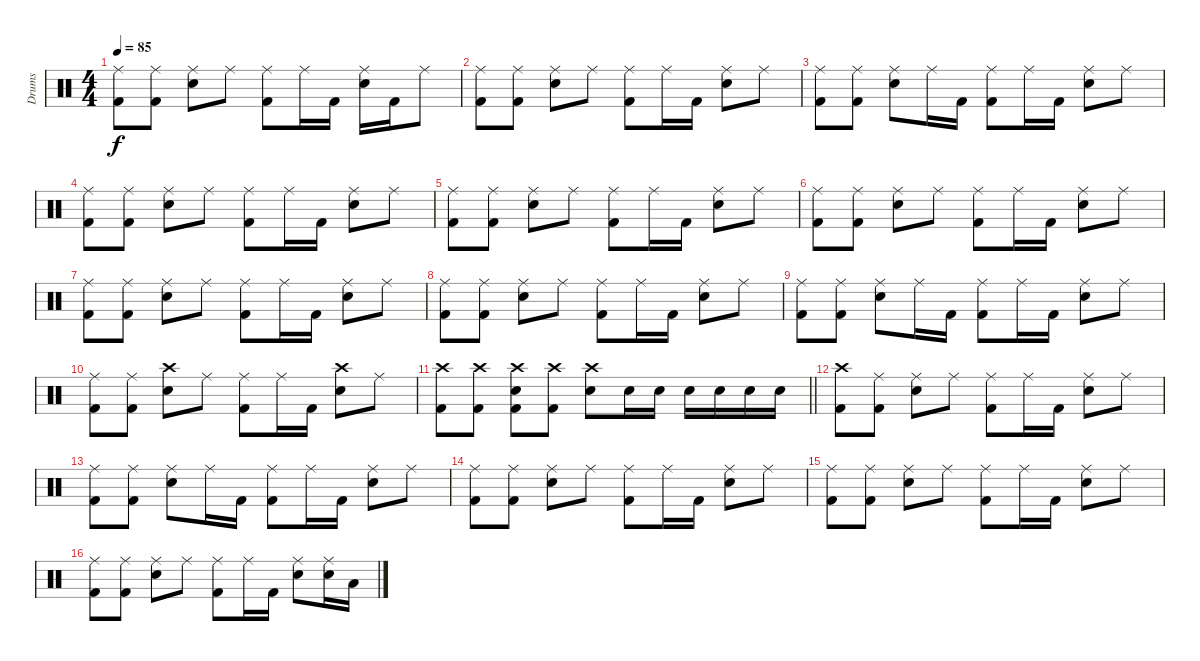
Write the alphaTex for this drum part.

\track ("Drums" "Drums") {instrument percussion}
\staff {score}
\articulation defaults
\ts (4 4)
\tempo 85
\clef neutral
\ks c
("Ride (middle)" "Kick (hit) 2").8{dy f} ("Ride (middle)" "Kick (hit) 2").8 ("Ride (middle)" "Snare (hit) 2").8 "Ride (middle)".8 ("Ride (middle)" "Kick (hit) 2").8 "Ride (middle)".16 "Kick (hit) 2".16 ("Ride (middle)" "Snare (hit) 2").16 "Kick (hit) 2".16 "Ride (middle)".8 |
("Ride (middle)" "Kick (hit) 2").8 ("Ride (middle)" "Kick (hit) 2").8 ("Ride (middle)" "Snare (hit) 2").8 "Ride (middle)".8 ("Ride (middle)" "Kick (hit) 2").8 "Ride (middle)".16 "Kick (hit) 2".16 ("Ride (middle)" "Snare (hit) 2").8 "Ride (middle)".8 |
("Ride (middle)" "Kick (hit) 2").8 ("Ride (middle)" "Kick (hit) 2").8 ("Ride (middle)" "Snare (hit) 2").8 "Ride (middle)".16 "Kick (hit) 2".16 ("Ride (middle)" "Kick (hit) 2").8 "Ride (middle)".16 "Kick (hit) 2".16 ("Ride (middle)" "Snare (hit) 2").8 "Ride (middle)".8 |
("Ride (middle)" "Kick (hit) 2").8 ("Ride (middle)" "Kick (hit) 2").8 ("Ride (middle)" "Snare (hit) 2").8 "Ride (middle)".8 ("Ride (middle)" "Kick (hit) 2").8 "Ride (middle)".16 "Kick (hit) 2".16 ("Ride (middle)" "Snare (hit) 2").8 "Ride (middle)".8 |
("Ride (middle)" "Kick (hit) 2").8 ("Ride (middle)" "Kick (hit) 2").8 ("Ride (middle)" "Snare (hit) 2").8 "Ride (middle)".8 ("Ride (middle)" "Kick (hit) 2").8 "Ride (middle)".16 "Kick (hit) 2".16 ("Ride (middle)" "Snare (hit) 2").8 "Ride (middle)".8 |
("Ride (middle)" "Kick (hit) 2").8 ("Ride (middle)" "Kick (hit) 2").8 ("Ride (middle)" "Snare (hit) 2").8 "Ride (middle)".8 ("Ride (middle)" "Kick (hit) 2").8 "Ride (middle)".16 "Kick (hit) 2".16 ("Ride (middle)" "Snare (hit) 2").8 "Ride (middle)".8 |
("Ride (middle)" "Kick (hit) 2").8 ("Ride (middle)" "Kick (hit) 2").8 ("Ride (middle)" "Snare (hit) 2").8 "Ride (middle)".8 ("Ride (middle)" "Kick (hit) 2").8 "Ride (middle)".16 "Kick (hit) 2".16 ("Ride (middle)" "Snare (hit) 2").8 "Ride (middle)".8 |
("Ride (middle)" "Kick (hit) 2").8 ("Ride (middle)" "Kick (hit) 2").8 ("Ride (middle)" "Snare (hit) 2").8 "Ride (middle)".8 ("Ride (middle)" "Kick (hit) 2").8 "Ride (middle)".16 "Kick (hit) 2".16 ("Ride (middle)" "Snare (hit) 2").8 "Ride (middle)".8 |
("Ride (middle)" "Kick (hit) 2").8 ("Ride (middle)" "Kick (hit) 2").8 ("Ride (middle)" "Snare (hit) 2").8 "Ride (middle)".16 "Kick (hit) 2".16 ("Ride (middle)" "Kick (hit) 2").8 "Ride (middle)".16 "Kick (hit) 2".16 ("Ride (middle)" "Snare (hit) 2").8 "Ride (middle)".8 |
("Ride (middle)" "Kick (hit) 2").8 ("Ride (middle)" "Kick (hit) 2").8 ("Crash high (hit)" "Snare (hit) 2").8 "Ride (middle)".8 ("Ride (middle)" "Kick (hit) 2").8 "Ride (middle)".16 "Kick (hit) 2".16 ("Crash high (hit)" "Snare (hit) 2").8 "Ride (middle)".8 |
\barLineRight lightlight
("Crash high (hit)" "Kick (hit) 2").8 ("Crash high (hit)" "Kick (hit) 2").8 ("Crash high (hit)" "Snare (hit) 2" "Kick (hit) 2").8 ("Crash high (hit)" "Kick (hit) 2").8 ("Crash high (hit)" "Snare (hit) 2").8 "Snare (hit) 2".16 "Snare (hit) 2".16 "Snare (hit) 2".16 "Snare (hit) 2".16 "Snare (hit) 2".16 "Snare (hit) 2".16 |
("Crash high (hit)" "Kick (hit) 2").8 ("Ride (middle)" "Kick (hit) 2").8 ("Ride (middle)" "Snare (hit) 2").8 "Ride (middle)".8 ("Ride (middle)" "Kick (hit) 2").8 "Ride (middle)".16 "Kick (hit) 2".16 ("Ride (middle)" "Snare (hit) 2").8 "Ride (middle)".8 |
("Ride (middle)" "Kick (hit) 2").8 ("Ride (middle)" "Kick (hit) 2").8 ("Ride (middle)" "Snare (hit) 2").8 "Ride (middle)".16 "Kick (hit) 2".16 ("Ride (middle)" "Kick (hit) 2").8 "Ride (middle)".16 "Kick (hit) 2".16 ("Ride (middle)" "Snare (hit) 2").8 "Ride (middle)".8 |
("Ride (middle)" "Kick (hit) 2").8 ("Ride (middle)" "Kick (hit) 2").8 ("Ride (middle)" "Snare (hit) 2").8 "Ride (middle)".8 ("Ride (middle)" "Kick (hit) 2").8 "Ride (middle)".16 "Kick (hit) 2".16 ("Ride (middle)" "Snare (hit) 2").8 "Ride (middle)".8 |
("Ride (middle)" "Kick (hit) 2").8 ("Ride (middle)" "Kick (hit) 2").8 ("Ride (middle)" "Snare (hit) 2").8 "Ride (middle)".8 ("Ride (middle)" "Kick (hit) 2").8 "Ride (middle)".16 "Kick (hit) 2".16 ("Ride (middle)" "Snare (hit) 2").8 "Ride (middle)".8 |
("Ride (middle)" "Kick (hit) 2").8 ("Ride (middle)" "Kick (hit) 2").8 ("Ride (middle)" "Snare (hit) 2").8 "Ride (middle)".8 ("Ride (middle)" "Kick (hit) 2").8 "Ride (middle)".16 "Kick (hit) 2".16 ("Ride (middle)" "Snare (hit) 2").8 ("Ride (middle)" "Snare (hit) 2").16 "Low Tom (hit)".16
